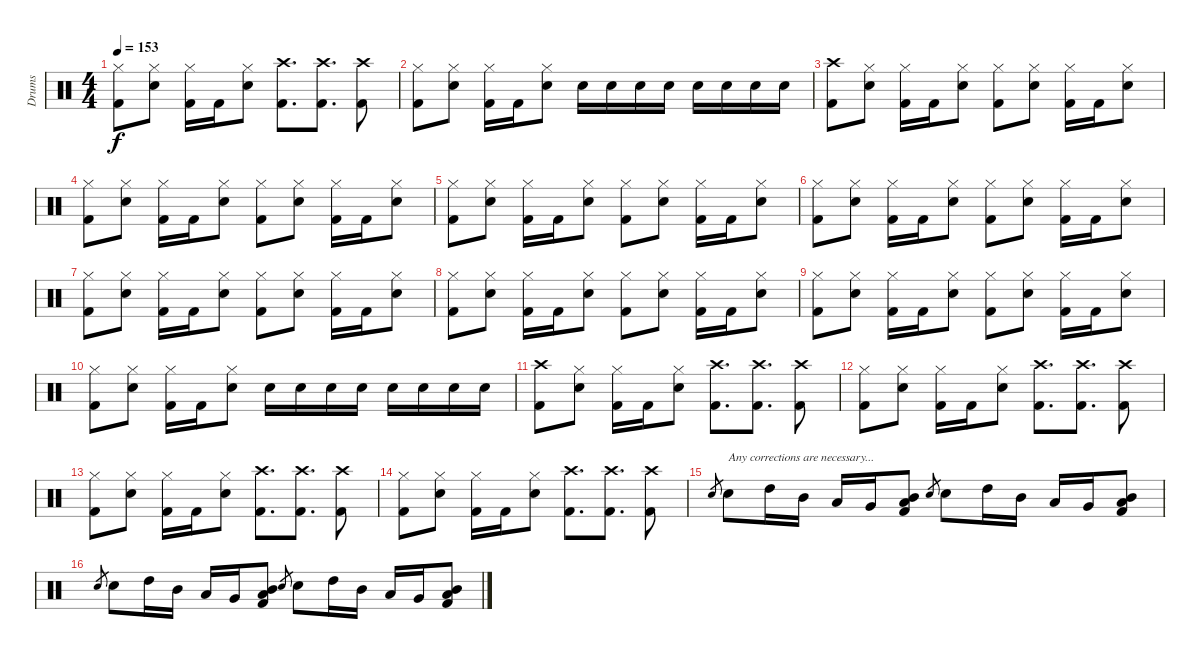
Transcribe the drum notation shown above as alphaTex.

\track ("Drums" "Drums") {instrument percussion}
\staff {score}
\articulation defaults
\ts (4 4)
\tempo 153
\clef neutral
\ks c
("Hi-Hat (closed)" "Kick (hit) 2").8{dy f} ("Hi-Hat (closed)" "Snare (hit) 2").8 ("Hi-Hat (closed)" "Kick (hit) 2").16 "Kick (hit) 2".16 ("Hi-Hat (closed)" "Snare (hit) 2").8 ("Crash high (hit)" "Kick (hit) 2").8{d} ("Crash high (hit)" "Kick (hit) 2").8{d} ("Crash high (hit)" "Kick (hit) 2").8 |
("Hi-Hat (closed)" "Kick (hit) 2").8 ("Hi-Hat (closed)" "Snare (hit) 2").8 ("Hi-Hat (closed)" "Kick (hit) 2").16 "Kick (hit) 2".16 ("Hi-Hat (closed)" "Snare (hit) 2").8 "Snare (hit) 2".16 "Snare (hit) 2".16 "Snare (hit) 2".16 "Snare (hit) 2".16 "Snare (hit) 2".16 "Snare (hit) 2".16 "Snare (hit) 2".16 "Snare (hit) 2".16 |
("Crash high (hit)" "Kick (hit) 2").8 ("Hi-Hat (closed)" "Snare (hit) 2").8 ("Hi-Hat (closed)" "Kick (hit) 2").16 "Kick (hit) 2".16 ("Hi-Hat (closed)" "Snare (hit) 2").8 ("Hi-Hat (closed)" "Kick (hit) 2").8 ("Hi-Hat (closed)" "Snare (hit) 2").8 ("Hi-Hat (closed)" "Kick (hit) 2").16 "Kick (hit) 2".16 ("Hi-Hat (closed)" "Snare (hit) 2").8 |
("Hi-Hat (closed)" "Kick (hit) 2").8 ("Hi-Hat (closed)" "Snare (hit) 2").8 ("Hi-Hat (closed)" "Kick (hit) 2").16 "Kick (hit) 2".16 ("Hi-Hat (closed)" "Snare (hit) 2").8 ("Hi-Hat (closed)" "Kick (hit) 2").8 ("Hi-Hat (closed)" "Snare (hit) 2").8 ("Hi-Hat (closed)" "Kick (hit) 2").16 "Kick (hit) 2".16 ("Hi-Hat (closed)" "Snare (hit) 2").8 |
("Hi-Hat (closed)" "Kick (hit) 2").8 ("Hi-Hat (closed)" "Snare (hit) 2").8 ("Hi-Hat (closed)" "Kick (hit) 2").16 "Kick (hit) 2".16 ("Hi-Hat (closed)" "Snare (hit) 2").8 ("Hi-Hat (closed)" "Kick (hit) 2").8 ("Hi-Hat (closed)" "Snare (hit) 2").8 ("Hi-Hat (closed)" "Kick (hit) 2").16 "Kick (hit) 2".16 ("Hi-Hat (closed)" "Snare (hit) 2").8 |
("Hi-Hat (closed)" "Kick (hit) 2").8 ("Hi-Hat (closed)" "Snare (hit) 2").8 ("Hi-Hat (closed)" "Kick (hit) 2").16 "Kick (hit) 2".16 ("Hi-Hat (closed)" "Snare (hit) 2").8 ("Hi-Hat (closed)" "Kick (hit) 2").8 ("Hi-Hat (closed)" "Snare (hit) 2").8 ("Hi-Hat (closed)" "Kick (hit) 2").16 "Kick (hit) 2".16 ("Hi-Hat (closed)" "Snare (hit) 2").8 |
("Hi-Hat (closed)" "Kick (hit) 2").8 ("Hi-Hat (closed)" "Snare (hit) 2").8 ("Hi-Hat (closed)" "Kick (hit) 2").16 "Kick (hit) 2".16 ("Hi-Hat (closed)" "Snare (hit) 2").8 ("Hi-Hat (closed)" "Kick (hit) 2").8 ("Hi-Hat (closed)" "Snare (hit) 2").8 ("Hi-Hat (closed)" "Kick (hit) 2").16 "Kick (hit) 2".16 ("Hi-Hat (closed)" "Snare (hit) 2").8 |
("Hi-Hat (closed)" "Kick (hit) 2").8 ("Hi-Hat (closed)" "Snare (hit) 2").8 ("Hi-Hat (closed)" "Kick (hit) 2").16 "Kick (hit) 2".16 ("Hi-Hat (closed)" "Snare (hit) 2").8 ("Hi-Hat (closed)" "Kick (hit) 2").8 ("Hi-Hat (closed)" "Snare (hit) 2").8 ("Hi-Hat (closed)" "Kick (hit) 2").16 "Kick (hit) 2".16 ("Hi-Hat (closed)" "Snare (hit) 2").8 |
("Hi-Hat (closed)" "Kick (hit) 2").8 ("Hi-Hat (closed)" "Snare (hit) 2").8 ("Hi-Hat (closed)" "Kick (hit) 2").16 "Kick (hit) 2".16 ("Hi-Hat (closed)" "Snare (hit) 2").8 ("Hi-Hat (closed)" "Kick (hit) 2").8 ("Hi-Hat (closed)" "Snare (hit) 2").8 ("Hi-Hat (closed)" "Kick (hit) 2").16 "Kick (hit) 2".16 ("Hi-Hat (closed)" "Snare (hit) 2").8 |
("Hi-Hat (closed)" "Kick (hit) 2").8 ("Hi-Hat (closed)" "Snare (hit) 2").8 ("Hi-Hat (closed)" "Kick (hit) 2").16 "Kick (hit) 2".16 ("Hi-Hat (closed)" "Snare (hit) 2").8 "Snare (hit) 2".16 "Snare (hit) 2".16 "Snare (hit) 2".16 "Snare (hit) 2".16 "Snare (hit) 2".16 "Snare (hit) 2".16 "Snare (hit) 2".16 "Snare (hit) 2".16 |
("Crash high (hit)" "Kick (hit) 2").8 ("Hi-Hat (closed)" "Snare (hit) 2").8 ("Hi-Hat (closed)" "Kick (hit) 2").16 "Kick (hit) 2".16 ("Hi-Hat (closed)" "Snare (hit) 2").8 ("Crash high (hit)" "Kick (hit) 2").8{d} ("Crash high (hit)" "Kick (hit) 2").8{d} ("Crash high (hit)" "Kick (hit) 2").8 |
("Hi-Hat (closed)" "Kick (hit) 2").8 ("Hi-Hat (closed)" "Snare (hit) 2").8 ("Hi-Hat (closed)" "Kick (hit) 2").16 "Kick (hit) 2".16 ("Hi-Hat (closed)" "Snare (hit) 2").8 ("Crash high (hit)" "Kick (hit) 2").8{d} ("Crash high (hit)" "Kick (hit) 2").8{d} ("Crash high (hit)" "Kick (hit) 2").8 |
("Hi-Hat (closed)" "Kick (hit) 2").8 ("Hi-Hat (closed)" "Snare (hit) 2").8 ("Hi-Hat (closed)" "Kick (hit) 2").16 "Kick (hit) 2".16 ("Hi-Hat (closed)" "Snare (hit) 2").8 ("Crash high (hit)" "Kick (hit) 2").8{d} ("Crash high (hit)" "Kick (hit) 2").8{d} ("Crash high (hit)" "Kick (hit) 2").8 |
("Hi-Hat (closed)" "Kick (hit) 2").8 ("Hi-Hat (closed)" "Snare (hit) 2").8 ("Hi-Hat (closed)" "Kick (hit) 2").16 "Kick (hit) 2".16 ("Hi-Hat (closed)" "Snare (hit) 2").8 ("Crash high (hit)" "Kick (hit) 2").8{d} ("Crash high (hit)" "Kick (hit) 2").8{d} ("Crash high (hit)" "Kick (hit) 2").8 |
"Snare (hit) 2".8{gr} "Snare (hit) 2".8{txt "Any corrections are necessary..."} "High Tom (hit)".16 "Mid Tom (hit)".16 "Low Tom (hit)".16 "Very Low Tom (hit)".16 ("Mid Tom (hit)" "Low Tom (hit)" "Kick (hit) 2").8 "Snare (hit) 2".8{gr} "Snare (hit) 2".8 "High Tom (hit)".16 "Mid Tom (hit)".16 "Low Tom (hit)".16 "Very Low Tom (hit)".16 ("Mid Tom (hit)" "Low Tom (hit)" "Kick (hit) 2").8 |
"Snare (hit) 2".8{gr} "Snare (hit) 2".8 "High Tom (hit)".16 "Mid Tom (hit)".16 "Low Tom (hit)".16 "Very Low Tom (hit)".16 ("Mid Tom (hit)" "Low Tom (hit)" "Kick (hit) 2").8 "Snare (hit) 2".8{gr} "Snare (hit) 2".8 "High Tom (hit)".16 "Mid Tom (hit)".16 "Low Tom (hit)".16 "Very Low Tom (hit)".16 ("Mid Tom (hit)" "Low Tom (hit)" "Kick (hit) 2").8
